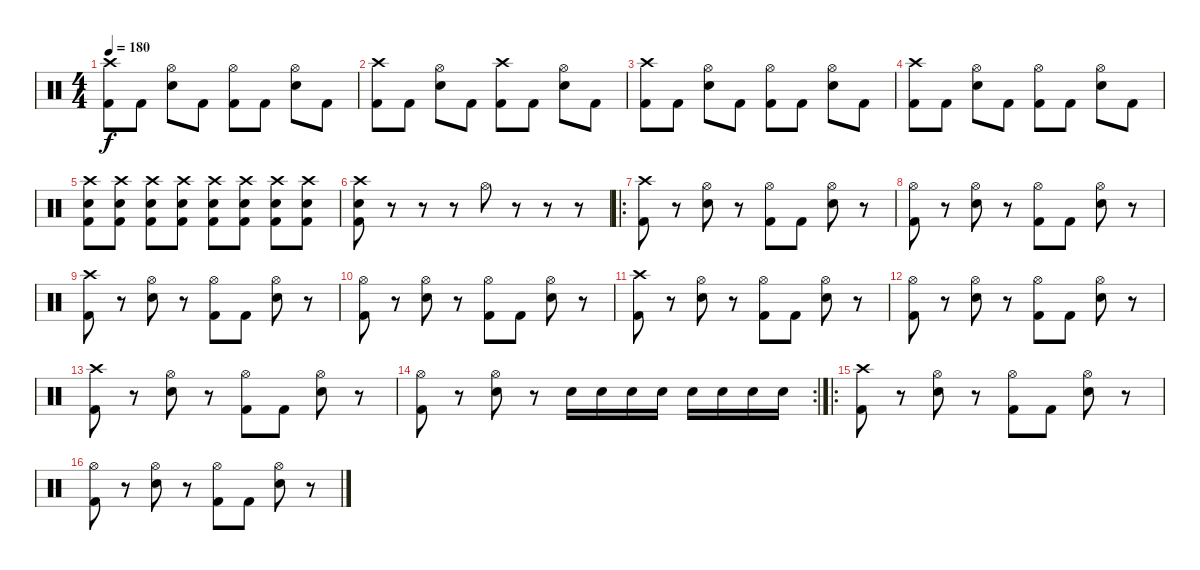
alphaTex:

\track "" {instrument percussion}
\staff {score}
\articulation defaults
\ts (4 4)
\tempo 180
\clef neutral
\ks c
("Crash high (hit)" "Kick (hit) 2").8{dy f} "Kick (hit) 2".8 ("Hi-Hat (open)" "Electric Snare (hit)").8 "Kick (hit) 2".8 ("Hi-Hat (open)" "Kick (hit) 2").8 "Kick (hit) 2".8 ("Hi-Hat (open)" "Electric Snare (hit)").8 "Kick (hit) 2".8 |
("Crash high (hit)" "Kick (hit) 2").8 "Kick (hit) 2".8 ("Hi-Hat (open)" "Electric Snare (hit)").8 "Kick (hit) 2".8 ("Crash high (hit)" "Kick (hit) 2").8 "Kick (hit) 2".8 ("Hi-Hat (open)" "Electric Snare (hit)").8 "Kick (hit) 2".8 |
("Crash high (hit)" "Kick (hit) 2").8 "Kick (hit) 2".8 ("Hi-Hat (open)" "Electric Snare (hit)").8 "Kick (hit) 2".8 ("Hi-Hat (open)" "Kick (hit) 2").8 "Kick (hit) 2".8 ("Hi-Hat (open)" "Electric Snare (hit)").8 "Kick (hit) 2".8 |
("Crash high (hit)" "Kick (hit) 2").8 "Kick (hit) 2".8 ("Hi-Hat (open)" "Electric Snare (hit)").8 "Kick (hit) 2".8 ("Hi-Hat (open)" "Kick (hit) 2").8 "Kick (hit) 2".8 ("Hi-Hat (open)" "Electric Snare (hit)").8 "Kick (hit) 2".8 |
("Crash high (hit)" "Kick (hit) 2" "Electric Snare (hit)").8 ("Crash high (hit)" "Kick (hit) 2" "Electric Snare (hit)").8 ("Crash high (hit)" "Kick (hit) 2" "Electric Snare (hit)").8 ("Crash high (hit)" "Kick (hit) 2" "Electric Snare (hit)").8 ("Crash high (hit)" "Kick (hit) 2" "Electric Snare (hit)").8 ("Crash high (hit)" "Kick (hit) 2" "Electric Snare (hit)").8 ("Crash high (hit)" "Kick (hit) 2" "Electric Snare (hit)").8 ("Crash high (hit)" "Kick (hit) 2" "Electric Snare (hit)").8 |
("Crash high (hit)" "Kick (hit) 2" "Electric Snare (hit)").8 r.8 r.8 r.8 "Hi-Hat (open)".8 r.8 r.8 r.8 |
\ro
("Crash high (hit)" "Kick (hit) 2").8 r.8 ("Hi-Hat (open)" "Electric Snare (hit)").8 r.8 ("Hi-Hat (open)" "Kick (hit) 2").8 "Kick (hit) 2".8 ("Hi-Hat (open)" "Electric Snare (hit)").8 r.8 |
("Hi-Hat (open)" "Kick (hit) 2").8 r.8 ("Hi-Hat (open)" "Electric Snare (hit)").8 r.8 ("Hi-Hat (open)" "Kick (hit) 2").8 "Kick (hit) 2".8 ("Hi-Hat (open)" "Electric Snare (hit)").8 r.8 |
("Crash high (hit)" "Kick (hit) 2").8 r.8 ("Hi-Hat (open)" "Electric Snare (hit)").8 r.8 ("Hi-Hat (open)" "Kick (hit) 2").8 "Kick (hit) 2".8 ("Hi-Hat (open)" "Electric Snare (hit)").8 r.8 |
("Hi-Hat (open)" "Kick (hit) 2").8 r.8 ("Hi-Hat (open)" "Electric Snare (hit)").8 r.8 ("Hi-Hat (open)" "Kick (hit) 2").8 "Kick (hit) 2".8 ("Hi-Hat (open)" "Electric Snare (hit)").8 r.8 |
("Crash high (hit)" "Kick (hit) 2").8 r.8 ("Hi-Hat (open)" "Electric Snare (hit)").8 r.8 ("Hi-Hat (open)" "Kick (hit) 2").8 "Kick (hit) 2".8 ("Hi-Hat (open)" "Electric Snare (hit)").8 r.8 |
("Hi-Hat (open)" "Kick (hit) 2").8 r.8 ("Hi-Hat (open)" "Electric Snare (hit)").8 r.8 ("Hi-Hat (open)" "Kick (hit) 2").8 "Kick (hit) 2".8 ("Hi-Hat (open)" "Electric Snare (hit)").8 r.8 |
("Crash high (hit)" "Kick (hit) 2").8 r.8 ("Hi-Hat (open)" "Electric Snare (hit)").8 r.8 ("Hi-Hat (open)" "Kick (hit) 2").8 "Kick (hit) 2".8 ("Hi-Hat (open)" "Electric Snare (hit)").8 r.8 |
\rc 2
("Hi-Hat (open)" "Kick (hit) 2").8 r.8 ("Hi-Hat (open)" "Electric Snare (hit)").8 r.8 "Electric Snare (hit)".16 "Electric Snare (hit)".16 "Electric Snare (hit)".16 "Electric Snare (hit)".16 "Electric Snare (hit)".16 "Electric Snare (hit)".16 "Electric Snare (hit)".16 "Electric Snare (hit)".16 |
\ro
("Crash high (hit)" "Kick (hit) 2").8 r.8 ("Hi-Hat (open)" "Electric Snare (hit)").8 r.8 ("Hi-Hat (open)" "Kick (hit) 2").8 "Kick (hit) 2".8 ("Hi-Hat (open)" "Electric Snare (hit)").8 r.8 |
("Hi-Hat (open)" "Kick (hit) 2").8 r.8 ("Hi-Hat (open)" "Electric Snare (hit)").8 r.8 ("Hi-Hat (open)" "Kick (hit) 2").8 "Kick (hit) 2".8 ("Hi-Hat (open)" "Electric Snare (hit)").8 r.8
